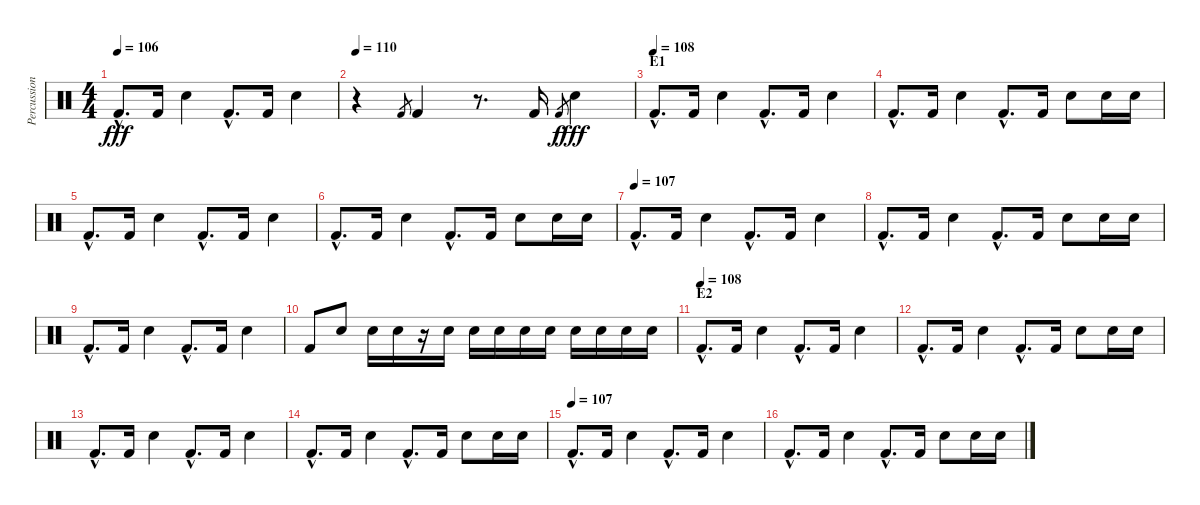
\track ("Percussion" "Percussion") {instrument percussion}
\staff {score}
\articulation defaults
\ts (4 4)
\tempo 106
\clef neutral
\ks c "Kick (hit) 2"{hac}.8{d dy fff} "Kick (hit) 2".16 "Electric Snare (hit)".4 "Kick (hit) 2"{hac}.8{d} "Kick (hit) 2".16 "Electric Snare (hit)".4
|
\tempo 110
r.4 "Kick (hit) 2".8{gr} "Kick (hit) 2".4 r.8{d} "Kick (hit) 2".16 "Kick (hit) 2".8{gr dy f} "Electric Snare (hit)".4{dy fff} |
\section ("" "E1")
\tempo (108)
"Kick (hit) 2"{hac}.8{d} "Kick (hit) 2".16 "Electric Snare (hit)".4 "Kick (hit) 2"{hac}.8{d} "Kick (hit) 2".16 "Electric Snare (hit)".4 |
"Kick (hit) 2"{hac}.8{d} "Kick (hit) 2".16 "Electric Snare (hit)".4 "Kick (hit) 2"{hac}.8{d} "Kick (hit) 2".16 "Electric Snare (hit)".8 "Electric Snare (hit)".16 "Electric Snare (hit)".16 |
"Kick (hit) 2"{hac}.8{d} "Kick (hit) 2".16 "Electric Snare (hit)".4 "Kick (hit) 2"{hac}.8{d} "Kick (hit) 2".16 "Electric Snare (hit)".4 |
"Kick (hit) 2"{hac}.8{d} "Kick (hit) 2".16 "Electric Snare (hit)".4 "Kick (hit) 2"{hac}.8{d} "Kick (hit) 2".16 "Electric Snare (hit)".8 "Electric Snare (hit)".16 "Electric Snare (hit)".16 |
\tempo (107)
"Kick (hit) 2"{hac}.8{d} "Kick (hit) 2".16 "Electric Snare (hit)".4 "Kick (hit) 2"{hac}.8{d} "Kick (hit) 2".16 "Electric Snare (hit)".4 |
"Kick (hit) 2"{hac}.8{d} "Kick (hit) 2".16 "Electric Snare (hit)".4 "Kick (hit) 2"{hac}.8{d} "Kick (hit) 2".16 "Electric Snare (hit)".8 "Electric Snare (hit)".16 "Electric Snare (hit)".16 |
"Kick (hit) 2"{hac}.8{d} "Kick (hit) 2".16 "Electric Snare (hit)".4 "Kick (hit) 2"{hac}.8{d} "Kick (hit) 2".16 "Electric Snare (hit)".4 |
"Kick (hit) 2".8 "Electric Snare (hit)".8 "Electric Snare (hit)".16 "Electric Snare (hit)".16 r.16 "Electric Snare (hit)".16 "Electric Snare (hit)".16 "Electric Snare (hit)".16 "Electric Snare (hit)".16 "Electric Snare (hit)".16 "Electric Snare (hit)".16 "Electric Snare (hit)".16 "Electric Snare (hit)".16 "Electric Snare (hit)".16 |
\section ("" "E2")
\tempo (108)
"Kick (hit) 2"{hac}.8{d} "Kick (hit) 2".16 "Electric Snare (hit)".4 "Kick (hit) 2"{hac}.8{d} "Kick (hit) 2".16 "Electric Snare (hit)".4 |
"Kick (hit) 2"{hac}.8{d} "Kick (hit) 2".16 "Electric Snare (hit)".4 "Kick (hit) 2"{hac}.8{d} "Kick (hit) 2".16 "Electric Snare (hit)".8 "Electric Snare (hit)".16 "Electric Snare (hit)".16 |
"Kick (hit) 2"{hac}.8{d} "Kick (hit) 2".16 "Electric Snare (hit)".4 "Kick (hit) 2"{hac}.8{d} "Kick (hit) 2".16 "Electric Snare (hit)".4 |
"Kick (hit) 2"{hac}.8{d} "Kick (hit) 2".16 "Electric Snare (hit)".4 "Kick (hit) 2"{hac}.8{d} "Kick (hit) 2".16 "Electric Snare (hit)".8 "Electric Snare (hit)".16 "Electric Snare (hit)".16 |
\tempo (107)
"Kick (hit) 2"{hac}.8{d} "Kick (hit) 2".16 "Electric Snare (hit)".4 "Kick (hit) 2"{hac}.8{d} "Kick (hit) 2".16 "Electric Snare (hit)".4 |
"Kick (hit) 2"{hac}.8{d} "Kick (hit) 2".16 "Electric Snare (hit)".4 "Kick (hit) 2"{hac}.8{d} "Kick (hit) 2".16 "Electric Snare (hit)".8 "Electric Snare (hit)".16 "Electric Snare (hit)".16
